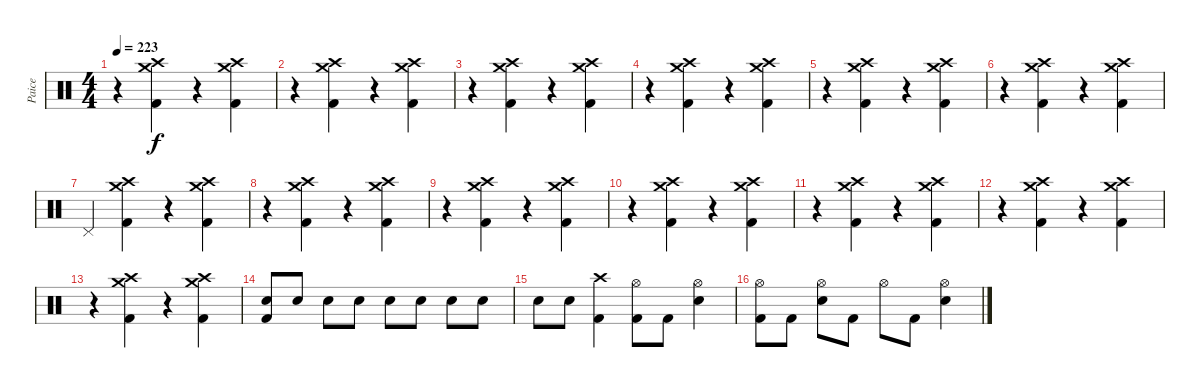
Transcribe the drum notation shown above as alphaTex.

\track ("Paice" "Paice") {instrument percussion}
\staff {score}
\articulation defaults
\ts (4 4)
\tempo 223
\clef neutral
\ks c
r.4{dy f} ("Crash high (hit)" "Crash medium (hit)" "Kick (hit) 2").4 r.4 ("Crash high (hit)" "Crash medium (hit)" "Kick (hit) 2").4 |
r.4 ("Crash high (hit)" "Crash medium (hit)" "Kick (hit) 2").4 r.4 ("Crash high (hit)" "Crash medium (hit)" "Kick (hit) 2").4 |
r.4 ("Crash high (hit)" "Crash medium (hit)" "Kick (hit) 2").4 r.4 ("Crash high (hit)" "Crash medium (hit)" "Kick (hit) 2").4 |
r.4 ("Crash high (hit)" "Crash medium (hit)" "Kick (hit) 2").4 r.4 ("Crash high (hit)" "Crash medium (hit)" "Kick (hit) 2").4 |
r.4 ("Crash high (hit)" "Crash medium (hit)" "Kick (hit) 2").4 r.4 ("Crash high (hit)" "Crash medium (hit)" "Kick (hit) 2").4 |
r.4 ("Crash high (hit)" "Crash medium (hit)" "Kick (hit) 2").4 r.4 ("Crash high (hit)" "Crash medium (hit)" "Kick (hit) 2").4 |
"Pedal Hi-Hat (hit)".4 ("Crash high (hit)" "Crash medium (hit)" "Kick (hit) 2").4 r.4 ("Crash high (hit)" "Crash medium (hit)" "Kick (hit) 2").4 |
r.4 ("Crash high (hit)" "Crash medium (hit)" "Kick (hit) 2").4 r.4 ("Crash high (hit)" "Crash medium (hit)" "Kick (hit) 2").4 |
r.4 ("Crash high (hit)" "Crash medium (hit)" "Kick (hit) 2").4 r.4 ("Crash high (hit)" "Crash medium (hit)" "Kick (hit) 2").4 |
r.4 ("Crash high (hit)" "Crash medium (hit)" "Kick (hit) 2").4 r.4 ("Crash high (hit)" "Crash medium (hit)" "Kick (hit) 2").4 |
r.4 ("Crash high (hit)" "Crash medium (hit)" "Kick (hit) 2").4 r.4 ("Crash high (hit)" "Crash medium (hit)" "Kick (hit) 2").4 |
r.4 ("Crash high (hit)" "Crash medium (hit)" "Kick (hit) 2").4 r.4 ("Crash high (hit)" "Crash medium (hit)" "Kick (hit) 2").4 |
r.4 ("Crash high (hit)" "Crash medium (hit)" "Kick (hit) 2").4 r.4 ("Crash high (hit)" "Crash medium (hit)" "Kick (hit) 2").4 |
("Electric Snare (hit)" "Kick (hit) 2").8 "Electric Snare (hit)".8 "Electric Snare (hit)".8 "Electric Snare (hit)".8 "Electric Snare (hit)".8 "Electric Snare (hit)".8 "Electric Snare (hit)".8 "Electric Snare (hit)".8 |
"Electric Snare (hit)".8 "Electric Snare (hit)".8 ("Crash high (hit)" "Kick (hit) 2").4 ("Hi-Hat (open)" "Kick (hit) 2").8 "Kick (hit) 2".8 ("Hi-Hat (open)" "Electric Snare (hit)").4 |
("Hi-Hat (open)" "Kick (hit) 2").8 "Kick (hit) 2".8 ("Hi-Hat (open)" "Electric Snare (hit)").8 "Kick (hit) 2".8 "Hi-Hat (open)".8 "Kick (hit) 2".8 ("Hi-Hat (open)" "Electric Snare (hit)").4
